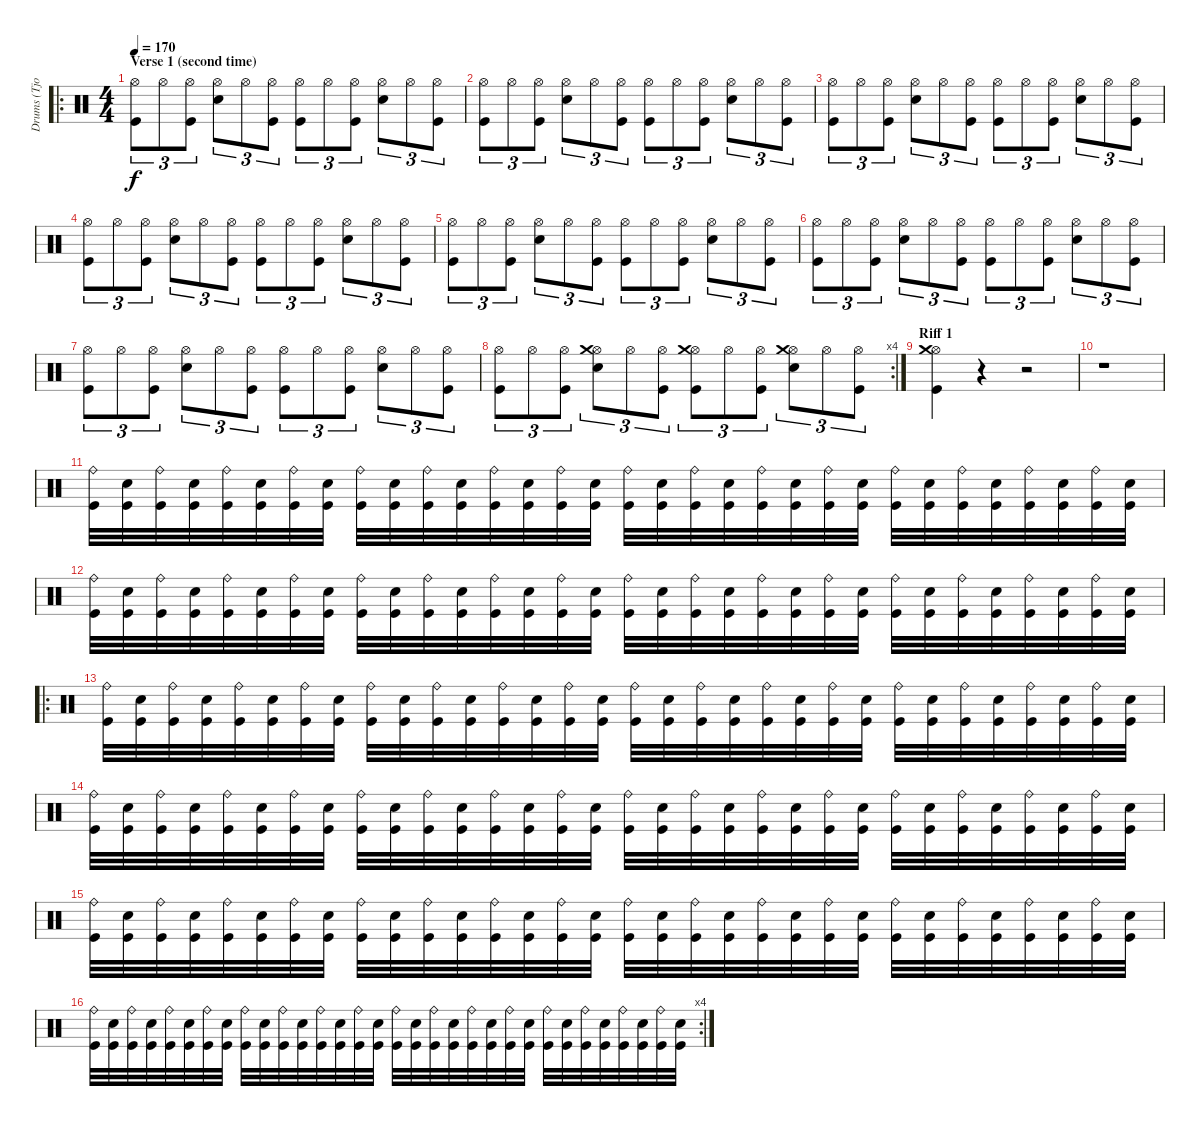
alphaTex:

\track ("Drums (Tjodalv)" "Drums (Tjo") {instrument percussion}
\staff {score}
\articulation defaults
\ro
\ts (4 4)
\section ("" "Verse 1 (second time)")
\tempo 170
\clef neutral
\ks c
("Hi-Hat (open)" "Kick (hit)").8{tu (3 2) dy f} "Hi-Hat (open)".8{tu (3 2)} ("Hi-Hat (open)" "Kick (hit)").8{tu (3 2)} ("Hi-Hat (open)" "Electric Snare (hit)").8{tu (3 2)} "Hi-Hat (open)".8{tu (3 2)} ("Hi-Hat (open)" "Kick (hit)").8{tu (3 2)} ("Hi-Hat (open)" "Kick (hit)").8{tu (3 2)} "Hi-Hat (open)".8{tu (3 2)} ("Hi-Hat (open)" "Kick (hit)").8{tu (3 2)} ("Hi-Hat (open)" "Electric Snare (hit)").8{tu (3 2)} "Hi-Hat (open)".8{tu (3 2)} ("Hi-Hat (open)" "Kick (hit)").8{tu (3 2)} |
("Hi-Hat (open)" "Kick (hit)").8{tu (3 2)} "Hi-Hat (open)".8{tu (3 2)} ("Hi-Hat (open)" "Kick (hit)").8{tu (3 2)} ("Hi-Hat (open)" "Electric Snare (hit)").8{tu (3 2)} "Hi-Hat (open)".8{tu (3 2)} ("Hi-Hat (open)" "Kick (hit)").8{tu (3 2)} ("Hi-Hat (open)" "Kick (hit)").8{tu (3 2)} "Hi-Hat (open)".8{tu (3 2)} ("Hi-Hat (open)" "Kick (hit)").8{tu (3 2)} ("Hi-Hat (open)" "Electric Snare (hit)").8{tu (3 2)} "Hi-Hat (open)".8{tu (3 2)} ("Hi-Hat (open)" "Kick (hit)").8{tu (3 2)} |
("Hi-Hat (open)" "Kick (hit)").8{tu (3 2)} "Hi-Hat (open)".8{tu (3 2)} ("Hi-Hat (open)" "Kick (hit)").8{tu (3 2)} ("Hi-Hat (open)" "Electric Snare (hit)").8{tu (3 2)} "Hi-Hat (open)".8{tu (3 2)} ("Hi-Hat (open)" "Kick (hit)").8{tu (3 2)} ("Hi-Hat (open)" "Kick (hit)").8{tu (3 2)} "Hi-Hat (open)".8{tu (3 2)} ("Hi-Hat (open)" "Kick (hit)").8{tu (3 2)} ("Hi-Hat (open)" "Electric Snare (hit)").8{tu (3 2)} "Hi-Hat (open)".8{tu (3 2)} ("Hi-Hat (open)" "Kick (hit)").8{tu (3 2)} |
("Hi-Hat (open)" "Kick (hit)").8{tu (3 2)} "Hi-Hat (open)".8{tu (3 2)} ("Hi-Hat (open)" "Kick (hit)").8{tu (3 2)} ("Hi-Hat (open)" "Electric Snare (hit)").8{tu (3 2)} "Hi-Hat (open)".8{tu (3 2)} ("Hi-Hat (open)" "Kick (hit)").8{tu (3 2)} ("Hi-Hat (open)" "Kick (hit)").8{tu (3 2)} "Hi-Hat (open)".8{tu (3 2)} ("Hi-Hat (open)" "Kick (hit)").8{tu (3 2)} ("Hi-Hat (open)" "Electric Snare (hit)").8{tu (3 2)} "Hi-Hat (open)".8{tu (3 2)} ("Hi-Hat (open)" "Kick (hit)").8{tu (3 2)} |
("Hi-Hat (open)" "Kick (hit)").8{tu (3 2)} "Hi-Hat (open)".8{tu (3 2)} ("Hi-Hat (open)" "Kick (hit)").8{tu (3 2)} ("Hi-Hat (open)" "Electric Snare (hit)").8{tu (3 2)} "Hi-Hat (open)".8{tu (3 2)} ("Hi-Hat (open)" "Kick (hit)").8{tu (3 2)} ("Hi-Hat (open)" "Kick (hit)").8{tu (3 2)} "Hi-Hat (open)".8{tu (3 2)} ("Hi-Hat (open)" "Kick (hit)").8{tu (3 2)} ("Hi-Hat (open)" "Electric Snare (hit)").8{tu (3 2)} "Hi-Hat (open)".8{tu (3 2)} ("Hi-Hat (open)" "Kick (hit)").8{tu (3 2)} |
("Hi-Hat (open)" "Kick (hit)").8{tu (3 2)} "Hi-Hat (open)".8{tu (3 2)} ("Hi-Hat (open)" "Kick (hit)").8{tu (3 2)} ("Hi-Hat (open)" "Electric Snare (hit)").8{tu (3 2)} "Hi-Hat (open)".8{tu (3 2)} ("Hi-Hat (open)" "Kick (hit)").8{tu (3 2)} ("Hi-Hat (open)" "Kick (hit)").8{tu (3 2)} "Hi-Hat (open)".8{tu (3 2)} ("Hi-Hat (open)" "Kick (hit)").8{tu (3 2)} ("Hi-Hat (open)" "Electric Snare (hit)").8{tu (3 2)} "Hi-Hat (open)".8{tu (3 2)} ("Hi-Hat (open)" "Kick (hit)").8{tu (3 2)} |
("Hi-Hat (open)" "Kick (hit)").8{tu (3 2)} "Hi-Hat (open)".8{tu (3 2)} ("Hi-Hat (open)" "Kick (hit)").8{tu (3 2)} ("Hi-Hat (open)" "Electric Snare (hit)").8{tu (3 2)} "Hi-Hat (open)".8{tu (3 2)} ("Hi-Hat (open)" "Kick (hit)").8{tu (3 2)} ("Hi-Hat (open)" "Kick (hit)").8{tu (3 2)} "Hi-Hat (open)".8{tu (3 2)} ("Hi-Hat (open)" "Kick (hit)").8{tu (3 2)} ("Hi-Hat (open)" "Electric Snare (hit)").8{tu (3 2)} "Hi-Hat (open)".8{tu (3 2)} ("Hi-Hat (open)" "Kick (hit)").8{tu (3 2)} |
\rc 4
("Hi-Hat (open)" "Kick (hit)").8{tu (3 2)} "Hi-Hat (open)".8{tu (3 2)} ("Hi-Hat (open)" "Kick (hit)").8{tu (3 2)} ("Hi-Hat (open)" "Electric Snare (hit)" "Crash medium (hit)").8{tu (3 2)} "Hi-Hat (open)".8{tu (3 2)} ("Hi-Hat (open)" "Kick (hit)").8{tu (3 2)} ("Hi-Hat (open)" "Kick (hit)" "Crash medium (hit)").8{tu (3 2)} "Hi-Hat (open)".8{tu (3 2)} ("Hi-Hat (open)" "Kick (hit)").8{tu (3 2)} ("Hi-Hat (open)" "Electric Snare (hit)" "Crash medium (hit)").8{tu (3 2)} "Hi-Hat (open)".8{tu (3 2)} ("Hi-Hat (open)" "Kick (hit)").8{tu (3 2)} |
\section ("" "Riff 1")
("Hi-Hat (open)" "Kick (hit)" "Crash medium (hit)").4 r.4 r.2 |
r.1 |
("Ride (bell)" "Kick (hit)").32 ("Electric Snare (hit)" "Kick (hit)").32 ("Ride (bell)" "Kick (hit)").32 ("Electric Snare (hit)" "Kick (hit)").32 ("Ride (bell)" "Kick (hit)").32 ("Kick (hit)" "Electric Snare (hit)").32 ("Ride (bell)" "Kick (hit)").32 ("Kick (hit)" "Electric Snare (hit)").32 ("Ride (bell)" "Kick (hit)").32 ("Electric Snare (hit)" "Kick (hit)").32 ("Ride (bell)" "Kick (hit)").32 ("Electric Snare (hit)" "Kick (hit)").32 ("Ride (bell)" "Kick (hit)").32 ("Electric Snare (hit)" "Kick (hit)").32 ("Ride (bell)" "Kick (hit)").32 ("Electric Snare (hit)" "Kick (hit)").32 ("Ride (bell)" "Kick (hit)").32 ("Electric Snare (hit)" "Kick (hit)").32 ("Ride (bell)" "Kick (hit)").32 ("Electric Snare (hit)" "Kick (hit)").32 ("Ride (bell)" "Kick (hit)").32 ("Electric Snare (hit)" "Kick (hit)").32 ("Ride (bell)" "Kick (hit)").32 ("Electric Snare (hit)" "Kick (hit)").32 ("Ride (bell)" "Kick (hit)").32 ("Electric Snare (hit)" "Kick (hit)").32 ("Ride (bell)" "Kick (hit)").32 ("Electric Snare (hit)" "Kick (hit)").32 ("Ride (bell)" "Kick (hit)").32 ("Electric Snare (hit)" "Kick (hit)").32 ("Ride (bell)" "Kick (hit)").32 ("Electric Snare (hit)" "Kick (hit)").32 |
("Ride (bell)" "Kick (hit)").32 ("Electric Snare (hit)" "Kick (hit)").32 ("Ride (bell)" "Kick (hit)").32 ("Electric Snare (hit)" "Kick (hit)").32 ("Ride (bell)" "Kick (hit)").32 ("Kick (hit)" "Electric Snare (hit)").32 ("Ride (bell)" "Kick (hit)").32 ("Kick (hit)" "Electric Snare (hit)").32 ("Ride (bell)" "Kick (hit)").32 ("Electric Snare (hit)" "Kick (hit)").32 ("Ride (bell)" "Kick (hit)").32 ("Electric Snare (hit)" "Kick (hit)").32 ("Ride (bell)" "Kick (hit)").32 ("Electric Snare (hit)" "Kick (hit)").32 ("Ride (bell)" "Kick (hit)").32 ("Electric Snare (hit)" "Kick (hit)").32 ("Ride (bell)" "Kick (hit)").32 ("Electric Snare (hit)" "Kick (hit)").32 ("Ride (bell)" "Kick (hit)").32 ("Electric Snare (hit)" "Kick (hit)").32 ("Ride (bell)" "Kick (hit)").32 ("Electric Snare (hit)" "Kick (hit)").32 ("Ride (bell)" "Kick (hit)").32 ("Electric Snare (hit)" "Kick (hit)").32 ("Ride (bell)" "Kick (hit)").32 ("Electric Snare (hit)" "Kick (hit)").32 ("Ride (bell)" "Kick (hit)").32 ("Electric Snare (hit)" "Kick (hit)").32 ("Ride (bell)" "Kick (hit)").32 ("Electric Snare (hit)" "Kick (hit)").32 ("Ride (bell)" "Kick (hit)").32 ("Electric Snare (hit)" "Kick (hit)").32 |
\ro
("Ride (bell)" "Kick (hit)").32 ("Electric Snare (hit)" "Kick (hit)").32 ("Ride (bell)" "Kick (hit)").32 ("Electric Snare (hit)" "Kick (hit)").32 ("Ride (bell)" "Kick (hit)").32 ("Kick (hit)" "Electric Snare (hit)").32 ("Ride (bell)" "Kick (hit)").32 ("Kick (hit)" "Electric Snare (hit)").32 ("Ride (bell)" "Kick (hit)").32 ("Electric Snare (hit)" "Kick (hit)").32 ("Ride (bell)" "Kick (hit)").32 ("Electric Snare (hit)" "Kick (hit)").32 ("Ride (bell)" "Kick (hit)").32 ("Electric Snare (hit)" "Kick (hit)").32 ("Ride (bell)" "Kick (hit)").32 ("Electric Snare (hit)" "Kick (hit)").32 ("Ride (bell)" "Kick (hit)").32 ("Electric Snare (hit)" "Kick (hit)").32 ("Ride (bell)" "Kick (hit)").32 ("Electric Snare (hit)" "Kick (hit)").32 ("Ride (bell)" "Kick (hit)").32 ("Electric Snare (hit)" "Kick (hit)").32 ("Ride (bell)" "Kick (hit)").32 ("Electric Snare (hit)" "Kick (hit)").32 ("Ride (bell)" "Kick (hit)").32 ("Electric Snare (hit)" "Kick (hit)").32 ("Ride (bell)" "Kick (hit)").32 ("Electric Snare (hit)" "Kick (hit)").32 ("Ride (bell)" "Kick (hit)").32 ("Electric Snare (hit)" "Kick (hit)").32 ("Ride (bell)" "Kick (hit)").32 ("Electric Snare (hit)" "Kick (hit)").32 |
("Ride (bell)" "Kick (hit)").32 ("Electric Snare (hit)" "Kick (hit)").32 ("Ride (bell)" "Kick (hit)").32 ("Electric Snare (hit)" "Kick (hit)").32 ("Ride (bell)" "Kick (hit)").32 ("Kick (hit)" "Electric Snare (hit)").32 ("Ride (bell)" "Kick (hit)").32 ("Kick (hit)" "Electric Snare (hit)").32 ("Ride (bell)" "Kick (hit)").32 ("Electric Snare (hit)" "Kick (hit)").32 ("Ride (bell)" "Kick (hit)").32 ("Electric Snare (hit)" "Kick (hit)").32 ("Ride (bell)" "Kick (hit)").32 ("Electric Snare (hit)" "Kick (hit)").32 ("Ride (bell)" "Kick (hit)").32 ("Electric Snare (hit)" "Kick (hit)").32 ("Ride (bell)" "Kick (hit)").32 ("Electric Snare (hit)" "Kick (hit)").32 ("Ride (bell)" "Kick (hit)").32 ("Electric Snare (hit)" "Kick (hit)").32 ("Ride (bell)" "Kick (hit)").32 ("Electric Snare (hit)" "Kick (hit)").32 ("Ride (bell)" "Kick (hit)").32 ("Electric Snare (hit)" "Kick (hit)").32 ("Ride (bell)" "Kick (hit)").32 ("Electric Snare (hit)" "Kick (hit)").32 ("Ride (bell)" "Kick (hit)").32 ("Electric Snare (hit)" "Kick (hit)").32 ("Ride (bell)" "Kick (hit)").32 ("Electric Snare (hit)" "Kick (hit)").32 ("Ride (bell)" "Kick (hit)").32 ("Electric Snare (hit)" "Kick (hit)").32 |
("Ride (bell)" "Kick (hit)").32 ("Electric Snare (hit)" "Kick (hit)").32 ("Ride (bell)" "Kick (hit)").32 ("Electric Snare (hit)" "Kick (hit)").32 ("Ride (bell)" "Kick (hit)").32 ("Kick (hit)" "Electric Snare (hit)").32 ("Ride (bell)" "Kick (hit)").32 ("Kick (hit)" "Electric Snare (hit)").32 ("Ride (bell)" "Kick (hit)").32 ("Electric Snare (hit)" "Kick (hit)").32 ("Ride (bell)" "Kick (hit)").32 ("Electric Snare (hit)" "Kick (hit)").32 ("Ride (bell)" "Kick (hit)").32 ("Electric Snare (hit)" "Kick (hit)").32 ("Ride (bell)" "Kick (hit)").32 ("Electric Snare (hit)" "Kick (hit)").32 ("Ride (bell)" "Kick (hit)").32 ("Electric Snare (hit)" "Kick (hit)").32 ("Ride (bell)" "Kick (hit)").32 ("Electric Snare (hit)" "Kick (hit)").32 ("Ride (bell)" "Kick (hit)").32 ("Electric Snare (hit)" "Kick (hit)").32 ("Ride (bell)" "Kick (hit)").32 ("Electric Snare (hit)" "Kick (hit)").32 ("Ride (bell)" "Kick (hit)").32 ("Electric Snare (hit)" "Kick (hit)").32 ("Ride (bell)" "Kick (hit)").32 ("Electric Snare (hit)" "Kick (hit)").32 ("Ride (bell)" "Kick (hit)").32 ("Electric Snare (hit)" "Kick (hit)").32 ("Ride (bell)" "Kick (hit)").32 ("Electric Snare (hit)" "Kick (hit)").32 |
\rc 4
("Ride (bell)" "Kick (hit)").32 ("Electric Snare (hit)" "Kick (hit)").32 ("Ride (bell)" "Kick (hit)").32 ("Electric Snare (hit)" "Kick (hit)").32 ("Ride (bell)" "Kick (hit)").32 ("Kick (hit)" "Electric Snare (hit)").32 ("Ride (bell)" "Kick (hit)").32 ("Kick (hit)" "Electric Snare (hit)").32 ("Ride (bell)" "Kick (hit)").32 ("Electric Snare (hit)" "Kick (hit)").32 ("Ride (bell)" "Kick (hit)").32 ("Electric Snare (hit)" "Kick (hit)").32 ("Ride (bell)" "Kick (hit)").32 ("Electric Snare (hit)" "Kick (hit)").32 ("Ride (bell)" "Kick (hit)").32 ("Electric Snare (hit)" "Kick (hit)").32 ("Ride (bell)" "Kick (hit)").32 ("Electric Snare (hit)" "Kick (hit)").32 ("Ride (bell)" "Kick (hit)").32 ("Electric Snare (hit)" "Kick (hit)").32 ("Ride (bell)" "Kick (hit)").32 ("Electric Snare (hit)" "Kick (hit)").32 ("Ride (bell)" "Kick (hit)").32 ("Electric Snare (hit)" "Kick (hit)").32 ("Ride (bell)" "Kick (hit)").32 ("Electric Snare (hit)" "Kick (hit)").32 ("Ride (bell)" "Kick (hit)").32 ("Electric Snare (hit)" "Kick (hit)").32 ("Ride (bell)" "Kick (hit)").32 ("Electric Snare (hit)" "Kick (hit)").32 ("Ride (bell)" "Kick (hit)").32 ("Electric Snare (hit)" "Kick (hit)").32
